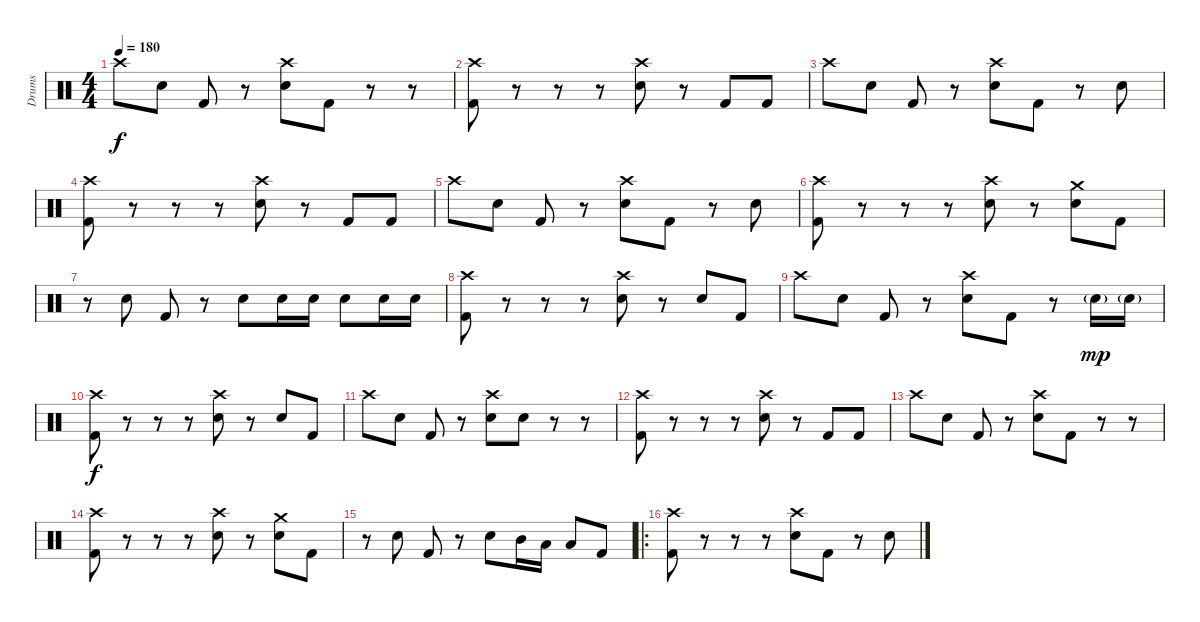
\track ("Drums" "Drums") {instrument percussion}
\staff {score}
\articulation defaults
\ts (4 4)
\tempo 180
\clef neutral
\ks c "Crash high (hit)".8{dy f} "Snare (hit) 2".8 "Kick (hit) 2".8
r.8 ("Crash high (hit)" "Snare (hit) 2").8 "Kick (hit) 2".8 r.8 r.8 |
("Crash high (hit)" "Kick (hit) 2").8 r.8 r.8 r.8 ("Crash high (hit)" "Snare (hit) 2").8 r.8 "Kick (hit) 2".8 "Kick (hit) 2".8 |
"Crash high (hit)".8 "Snare (hit) 2".8 "Kick (hit) 2".8 r.8 ("Crash high (hit)" "Snare (hit) 2").8 "Kick (hit) 2".8 r.8 "Snare (hit) 2".8 |
("Crash high (hit)" "Kick (hit) 2").8 r.8 r.8 r.8 ("Crash high (hit)" "Snare (hit) 2").8 r.8 "Kick (hit) 2".8 "Kick (hit) 2".8 |
"Crash high (hit)".8 "Snare (hit) 2".8 "Kick (hit) 2".8 r.8 ("Crash high (hit)" "Snare (hit) 2").8 "Kick (hit) 2".8 r.8 "Snare (hit) 2".8 |
("Crash high (hit)" "Kick (hit) 2").8 r.8 r.8 r.8 ("Crash high (hit)" "Snare (hit) 2").8 r.8 ("Crash medium (hit)" "Snare (hit) 2").8 "Kick (hit) 2".8 |
r.8 "Snare (hit) 2".8 "Kick (hit) 2".8 r.8 "Snare (hit) 2".8 "Snare (hit) 2".16 "Snare (hit) 2".16 "Snare (hit) 2".8 "Snare (hit) 2".16 "Snare (hit) 2".16 |
("Crash high (hit)" "Kick (hit) 2").8 r.8 r.8 r.8 ("Crash high (hit)" "Snare (hit) 2").8 r.8 "Snare (hit) 2".8 "Kick (hit) 2".8 |
"Crash high (hit)".8 "Snare (hit) 2".8 "Kick (hit) 2".8 r.8 ("Crash high (hit)" "Snare (hit) 2").8 "Kick (hit) 2".8 r.8 "Snare (hit) 2"{g}.16{dy mp} "Snare (hit) 2"{g}.16 |
("Crash high (hit)" "Kick (hit) 2").8{dy f} r.8 r.8 r.8 ("Crash high (hit)" "Snare (hit) 2").8 r.8 "Snare (hit) 2".8 "Kick (hit) 2".8 |
"Crash high (hit)".8 "Snare (hit) 2".8 "Kick (hit) 2".8 r.8 ("Crash high (hit)" "Snare (hit) 2").8 "Snare (hit) 2".8 r.8 r.8 |
("Crash high (hit)" "Kick (hit) 2").8 r.8 r.8 r.8 ("Crash high (hit)" "Snare (hit) 2").8 r.8 "Kick (hit) 2".8 "Kick (hit) 2".8 |
"Crash high (hit)".8 "Snare (hit) 2".8 "Kick (hit) 2".8 r.8 ("Crash high (hit)" "Snare (hit) 2").8 "Kick (hit) 2".8 r.8 r.8 |
("Crash high (hit)" "Kick (hit) 2").8 r.8 r.8 r.8 ("Crash high (hit)" "Snare (hit) 2").8 r.8 ("Crash medium (hit)" "Snare (hit) 2").8 "Kick (hit) 2".8 |
r.8 "Snare (hit) 2".8 "Kick (hit) 2".8 r.8 "Snare (hit) 2".8 "Mid Tom (hit)".16 "Low Tom (hit)".16 "Low Floor Tom (hit)".8 "Kick (hit) 2".8 |
\ro
("Crash high (hit)" "Kick (hit) 2").8 r.8 r.8 r.8 ("Crash high (hit)" "Snare (hit) 2").8 "Kick (hit) 2".8 r.8 "Snare (hit) 2".8
